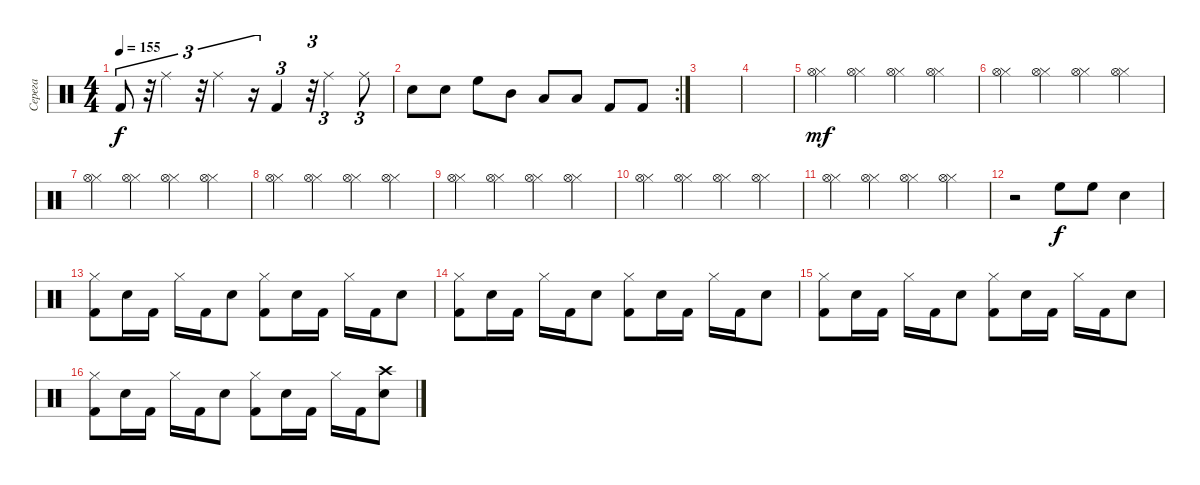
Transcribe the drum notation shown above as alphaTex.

\track ("Серега" "Серега") {instrument percussion}
\staff {score}
\articulation defaults
\ts (4 4)
\tempo 155
\clef neutral
\ks c "Kick (hit) 2"{t}.8{tu (3 2) dy f}
r.32{tu (3 2)} "Ride (middle)".4{tu (3 2)} r.32{tu (3 2)} "Ride (middle)".4{tu (3 2)} r.16{tu (3 2)} "Kick (hit) 2".4{tu (3 2)} r.32{tu (3 2)} "Ride (middle)".4{tu (3 2)} "Ride (middle)".8{tu (3 2)} |
\rc 2 "Snare (hit) 2".8 "Snare (hit) 2".8 "High Floor Tom (hit)".8 "Mid Tom (hit)".8 "Low Tom (hit)".8 "Low Floor Tom (hit)".8 "Kick (hit) 2".8 "Kick (hit) 2".8
|
|
|
("Hi-Hat (closed)" "Hi-Hat (open)").4{dy mf} ("Hi-Hat (closed)" "Hi-Hat (open)").4 ("Hi-Hat (closed)" "Hi-Hat (open)").4 ("Hi-Hat (closed)" "Hi-Hat (open)").4 |
("Hi-Hat (closed)" "Hi-Hat (open)").4 ("Hi-Hat (closed)" "Hi-Hat (open)").4 ("Hi-Hat (closed)" "Hi-Hat (open)").4 ("Hi-Hat (closed)" "Hi-Hat (open)").4 |
("Hi-Hat (closed)" "Hi-Hat (open)").4 ("Hi-Hat (closed)" "Hi-Hat (open)").4 ("Hi-Hat (closed)" "Hi-Hat (open)").4 ("Hi-Hat (closed)" "Hi-Hat (open)").4 |
("Hi-Hat (closed)" "Hi-Hat (open)").4 ("Hi-Hat (closed)" "Hi-Hat (open)").4 ("Hi-Hat (closed)" "Hi-Hat (open)").4 ("Hi-Hat (closed)" "Hi-Hat (open)").4 |
("Hi-Hat (closed)" "Hi-Hat (open)").4 ("Hi-Hat (closed)" "Hi-Hat (open)").4 ("Hi-Hat (closed)" "Hi-Hat (open)").4 ("Hi-Hat (closed)" "Hi-Hat (open)").4 |
("Hi-Hat (closed)" "Hi-Hat (open)").4 ("Hi-Hat (closed)" "Hi-Hat (open)").4 ("Hi-Hat (closed)" "Hi-Hat (open)").4 ("Hi-Hat (closed)" "Hi-Hat (open)").4 |
("Hi-Hat (closed)" "Hi-Hat (open)").4 ("Hi-Hat (closed)" "Hi-Hat (open)").4 ("Hi-Hat (closed)" "Hi-Hat (open)").4 ("Hi-Hat (closed)" "Hi-Hat (open)").4 |
r.2 "High Floor Tom (hit)".8{dy f} "High Floor Tom (hit)".8 "Snare (hit) 2".4 |
("Hi-Hat (closed)" "Kick (hit) 2").8 "Snare (hit) 2".16 "Kick (hit) 2".16 "Hi-Hat (closed)".16 "Kick (hit) 2".16 "Snare (hit) 2".8 ("Hi-Hat (closed)" "Kick (hit) 2").8 "Snare (hit) 2".16 "Kick (hit) 2".16 "Hi-Hat (closed)".16 "Kick (hit) 2".16 "Snare (hit) 2".8 |
("Hi-Hat (closed)" "Kick (hit) 2").8 "Snare (hit) 2".16 "Kick (hit) 2".16 "Hi-Hat (closed)".16 "Kick (hit) 2".16 "Snare (hit) 2".8 ("Hi-Hat (closed)" "Kick (hit) 2").8 "Snare (hit) 2".16 "Kick (hit) 2".16 "Hi-Hat (closed)".16 "Kick (hit) 2".16 "Snare (hit) 2".8 |
("Hi-Hat (closed)" "Kick (hit) 2").8 "Snare (hit) 2".16 "Kick (hit) 2".16 "Hi-Hat (closed)".16 "Kick (hit) 2".16 "Snare (hit) 2".8 ("Hi-Hat (closed)" "Kick (hit) 2").8 "Snare (hit) 2".16 "Kick (hit) 2".16 "Hi-Hat (closed)".16 "Kick (hit) 2".16 "Snare (hit) 2".8 |
("Hi-Hat (closed)" "Kick (hit) 2").8 "Snare (hit) 2".16 "Kick (hit) 2".16 "Hi-Hat (closed)".16 "Kick (hit) 2".16 "Snare (hit) 2".8 ("Hi-Hat (closed)" "Kick (hit) 2").8 "Snare (hit) 2".16 "Kick (hit) 2".16 "Hi-Hat (closed)".16 "Kick (hit) 2".16 ("Crash high (hit)" "Snare (hit) 2").8
